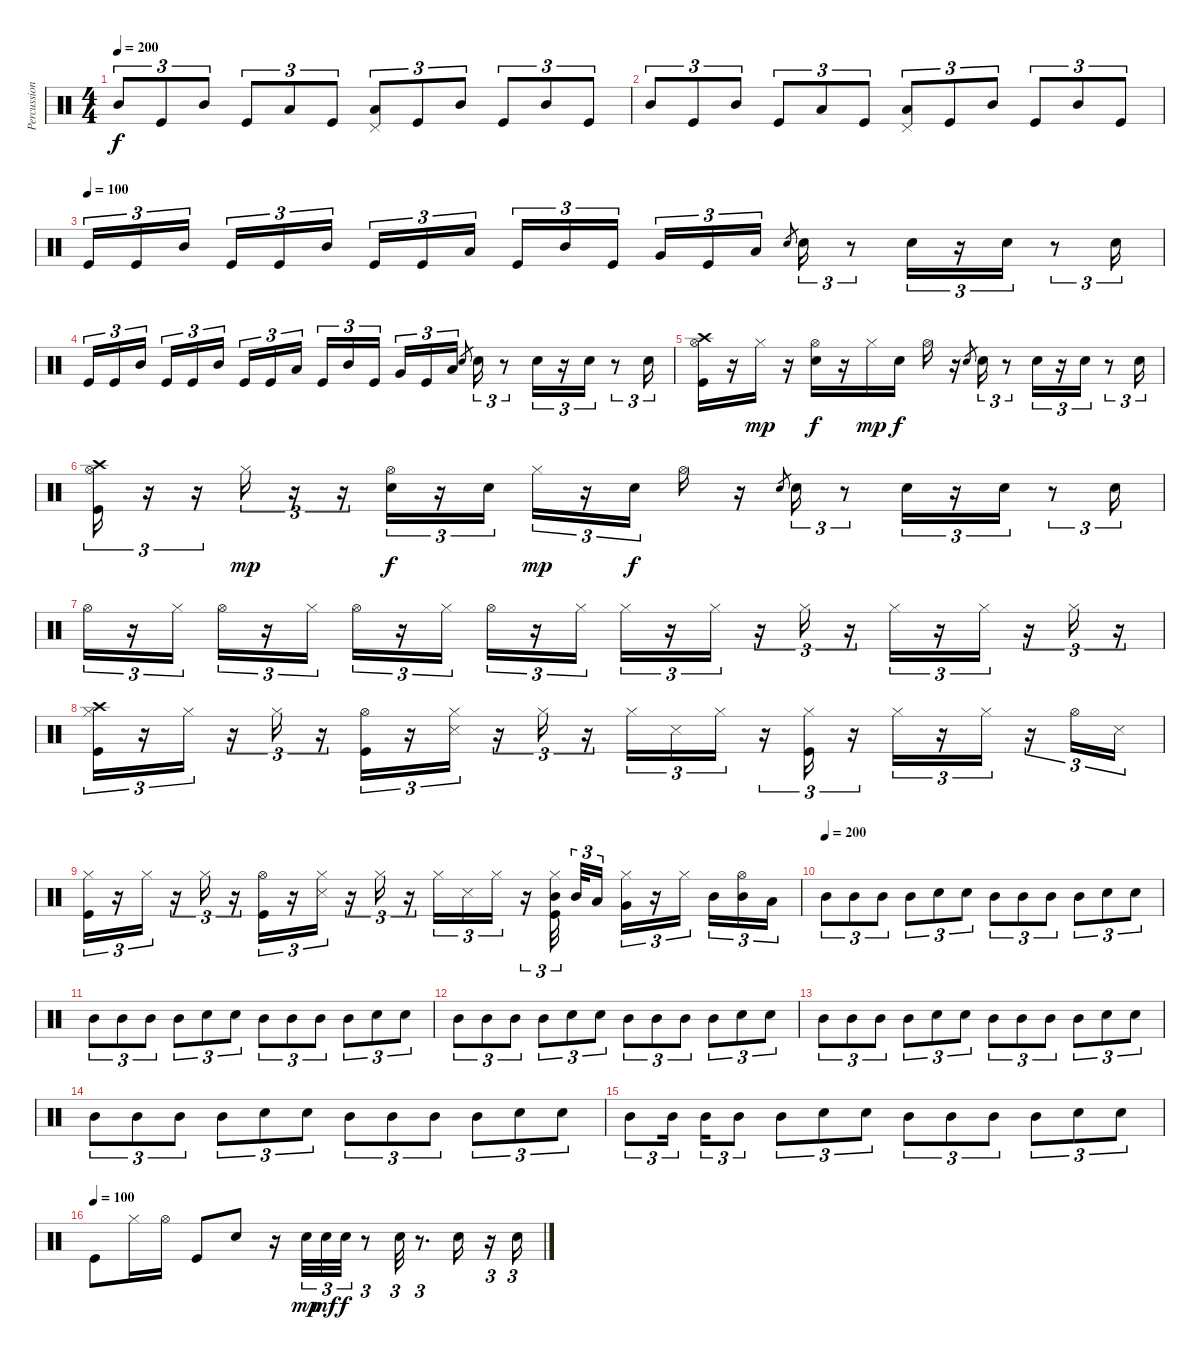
\track ("Percussions" "Percussion") {instrument percussion}
\staff {score}
\articulation defaults
\ts (4 4)
\tempo 200
\clef neutral
\ks c "Mid Tom (hit)".8{tu (3 2) dy f} "Kick (hit)".8{tu (3 2)} "Mid Tom (hit)".8{tu (3 2)} "Kick (hit)".8{tu (3 2)} "Low Tom (hit)".8{tu (3 2)} "Kick (hit)".8{tu (3 2)}
("Pedal Hi-Hat (hit)" "Low Tom (hit)").8{tu (3 2)} "Kick (hit)".8{tu (3 2)} "Mid Tom (hit)".8{tu (3 2)} "Kick (hit)".8{tu (3 2)} "Mid Tom (hit)".8{tu (3 2)} "Kick (hit)".8{tu (3 2)} |
"Mid Tom (hit)".8{tu (3 2)} "Kick (hit)".8{tu (3 2)} "Mid Tom (hit)".8{tu (3 2)} "Kick (hit)".8{tu (3 2)} "Low Tom (hit)".8{tu (3 2)} "Kick (hit)".8{tu (3 2)} ("Pedal Hi-Hat (hit)" "Low Tom (hit)").8{tu (3 2)} "Kick (hit)".8{tu (3 2)} "Mid Tom (hit)".8{tu (3 2)} "Kick (hit)".8{tu (3 2)} "Mid Tom (hit)".8{tu (3 2)} "Kick (hit)".8{tu (3 2)} |
\tempo (100)
"Kick (hit)".16{tu (3 2)} "Kick (hit)".16{tu (3 2)} "Mid Tom (hit)".16{tu (3 2)} "Kick (hit)".16{tu (3 2)} "Kick (hit)".16{tu (3 2)} "Mid Tom (hit)".16{tu (3 2)} "Kick (hit)".16{tu (3 2)} "Kick (hit)".16{tu (3 2)} "Low Tom (hit)".16{tu (3 2)} "Kick (hit)".16{tu (3 2)} "Mid Tom (hit)".16{tu (3 2)} "Kick (hit)".16{tu (3 2)} "Very Low Tom (hit)".16{tu (3 2)} "Kick (hit)".16{tu (3 2)} "Low Floor Tom (hit)".16{tu (3 2)} "Snare (hit) 2".8{gr} "Snare (hit) 2".16{tu (3 2)} r.8{tu (3 2)} "Snare (hit) 2".16{tu (3 2)} r.16{tu (3 2)} "Snare (hit) 2".16{tu (3 2)} r.8{tu (3 2)} "Snare (hit) 2".16{tu (3 2)} |
"Kick (hit)".16{tu (3 2)} "Kick (hit)".16{tu (3 2)} "Mid Tom (hit)".16{tu (3 2)} "Kick (hit)".16{tu (3 2)} "Kick (hit)".16{tu (3 2)} "Mid Tom (hit)".16{tu (3 2)} "Kick (hit)".16{tu (3 2)} "Kick (hit)".16{tu (3 2)} "Low Tom (hit)".16{tu (3 2)} "Kick (hit)".16{tu (3 2)} "Mid Tom (hit)".16{tu (3 2)} "Kick (hit)".16{tu (3 2)} "Very Low Tom (hit)".16{tu (3 2)} "Kick (hit)".16{tu (3 2)} "Low Floor Tom (hit)".16{tu (3 2)} "Snare (hit) 2".8{gr} "Snare (hit) 2".16{tu (3 2)} r.8{tu (3 2)} "Snare (hit) 2".16{tu (3 2)} r.16{tu (3 2)} "Snare (hit) 2".16{tu (3 2)} r.8{tu (3 2)} "Snare (hit) 2".16{tu (3 2)} |
("Hi-Hat (open)" "Crash high (hit)" "Kick (hit)").16 r.16 "Hi-Hat (closed)".16{dy mp} r.16 ("Hi-Hat (open)" "Snare (hit) 2").16{dy f} r.16 "Hi-Hat (closed)".16{dy mp} "Snare (hit) 2".16{dy f} "Hi-Hat (open)".16 r.16 "Snare (hit) 2".8{gr} "Snare (hit) 2".16{tu (3 2)} r.8{tu (3 2)} "Snare (hit) 2".16{tu (3 2)} r.16{tu (3 2)} "Snare (hit) 2".16{tu (3 2)} r.8{tu (3 2)} "Snare (hit) 2".16{tu (3 2)} |
("Hi-Hat (open)" "Crash high (hit)" "Kick (hit)").16{tu (3 2)} r.16{tu (3 2)} r.16{tu (3 2)} "Hi-Hat (closed)".16{tu (3 2) dy mp} r.16{tu (3 2)} r.16{tu (3 2)} ("Hi-Hat (open)" "Snare (hit) 2").16{tu (3 2) dy f} r.16{tu (3 2)} "Snare (hit) 2".16{tu (3 2)} "Hi-Hat (closed)".16{tu (3 2) dy mp} r.16{tu (3 2)} "Snare (hit) 2".16{tu (3 2) dy f} "Hi-Hat (open)".16 r.16 "Snare (hit) 2".8{gr} "Snare (hit) 2".16{tu (3 2)} r.8{tu (3 2)} "Snare (hit) 2".16{tu (3 2)} r.16{tu (3 2)} "Snare (hit) 2".16{tu (3 2)} r.8{tu (3 2)} "Snare (hit) 2".16{tu (3 2)} |
"Hi-Hat (open)".16{tu (3 2)} r.16{tu (3 2)} "Hi-Hat (closed)".16{tu (3 2)} "Hi-Hat (open)".16{tu (3 2)} r.16{tu (3 2)} "Hi-Hat (closed)".16{tu (3 2)} "Hi-Hat (open)".16{tu (3 2)} r.16{tu (3 2)} "Hi-Hat (closed)".16{tu (3 2)} "Hi-Hat (open)".16{tu (3 2)} r.16{tu (3 2)} "Hi-Hat (closed)".16{tu (3 2)} "Hi-Hat (closed)".16{tu (3 2)} r.16{tu (3 2)} "Hi-Hat (closed)".16{tu (3 2)} r.16{tu (3 2)} "Hi-Hat (closed)".16{tu (3 2)} r.16{tu (3 2)} "Hi-Hat (closed)".16{tu (3 2)} r.16{tu (3 2)} "Hi-Hat (closed)".16{tu (3 2)} r.16{tu (3 2)} "Hi-Hat (closed)".16{tu (3 2)} r.16{tu (3 2)} |
("Hi-Hat (closed)" "Crash high (hit)" "Kick (hit)").16{tu (3 2)} r.16{tu (3 2)} "Hi-Hat (closed)".16{tu (3 2)} r.16{tu (3 2)} "Hi-Hat (closed)".16{tu (3 2)} r.16{tu (3 2)} ("Hi-Hat (open)" "Kick (hit)").16{tu (3 2)} r.16{tu (3 2)} ("Hi-Hat (closed)" "Snare (side stick) 3").16{tu (3 2)} r.16{tu (3 2)} "Hi-Hat (closed)".16{tu (3 2)} r.16{tu (3 2)} "Hi-Hat (closed)".16{tu (3 2)} "Snare (side stick) 3".16{tu (3 2)} "Hi-Hat (closed)".16{tu (3 2)} r.16{tu (3 2)} ("Hi-Hat (closed)" "Kick (hit)").16{tu (3 2)} r.16{tu (3 2)} "Hi-Hat (closed)".16{tu (3 2)} r.16{tu (3 2)} "Hi-Hat (closed)".16{tu (3 2)} r.16{tu (3 2)} "Hi-Hat (open)".16{tu (3 2)} "Snare (side stick) 3".16{tu (3 2)} |
("Hi-Hat (closed)" "Kick (hit)").16{tu (3 2)} r.16{tu (3 2)} "Hi-Hat (closed)".16{tu (3 2)} r.16{tu (3 2)} "Hi-Hat (closed)".16{tu (3 2)} r.16{tu (3 2)} ("Hi-Hat (open)" "Kick (hit)").16{tu (3 2)} r.16{tu (3 2)} ("Hi-Hat (closed)" "Snare (side stick) 3").16{tu (3 2)} r.16{tu (3 2)} "Hi-Hat (closed)".16{tu (3 2)} r.16{tu (3 2)} "Hi-Hat (closed)".16{tu (3 2)} "Snare (side stick) 3".16{tu (3 2)} "Hi-Hat (closed)".16{tu (3 2)} r.16{tu (3 2)} ("Hi-Hat (closed)" "Mid Tom (hit)" "Kick (hit)").32{tu (3 2)} "Mid Tom (hit)".32{tu (3 2)} "Low Tom (hit)".16{tu (3 2)} ("Hi-Hat (closed)" "Very Low Tom (hit)").16{tu (3 2)} r.16{tu (3 2)} "Hi-Hat (closed)".16{tu (3 2)} "Mid Tom (hit)".16{tu (3 2)} ("Hi-Hat (open)" "Mid Tom (hit)").16{tu (3 2)} "Low Tom (hit)".16{tu (3 2)} |
\tempo (200)
"Mid Tom (hit)".8{tu (3 2)} "Mid Tom (hit)".8{tu (3 2)} "Mid Tom (hit)".8{tu (3 2)} "Mid Tom (hit)".8{tu (3 2)} "Snare (hit) 2".8{tu (3 2)} "Snare (hit) 2".8{tu (3 2)} "Mid Tom (hit)".8{tu (3 2)} "Mid Tom (hit)".8{tu (3 2)} "Mid Tom (hit)".8{tu (3 2)} "Mid Tom (hit)".8{tu (3 2)} "Snare (hit) 2".8{tu (3 2)} "Snare (hit) 2".8{tu (3 2)} |
"Mid Tom (hit)".8{tu (3 2)} "Mid Tom (hit)".8{tu (3 2)} "Mid Tom (hit)".8{tu (3 2)} "Mid Tom (hit)".8{tu (3 2)} "Snare (hit) 2".8{tu (3 2)} "Snare (hit) 2".8{tu (3 2)} "Mid Tom (hit)".8{tu (3 2)} "Mid Tom (hit)".8{tu (3 2)} "Mid Tom (hit)".8{tu (3 2)} "Mid Tom (hit)".8{tu (3 2)} "Snare (hit) 2".8{tu (3 2)} "Snare (hit) 2".8{tu (3 2)} |
"Mid Tom (hit)".8{tu (3 2)} "Mid Tom (hit)".8{tu (3 2)} "Mid Tom (hit)".8{tu (3 2)} "Mid Tom (hit)".8{tu (3 2)} "Snare (hit) 2".8{tu (3 2)} "Snare (hit) 2".8{tu (3 2)} "Mid Tom (hit)".8{tu (3 2)} "Mid Tom (hit)".8{tu (3 2)} "Mid Tom (hit)".8{tu (3 2)} "Mid Tom (hit)".8{tu (3 2)} "Snare (hit) 2".8{tu (3 2)} "Snare (hit) 2".8{tu (3 2)} |
"Mid Tom (hit)".8{tu (3 2)} "Mid Tom (hit)".8{tu (3 2)} "Mid Tom (hit)".8{tu (3 2)} "Mid Tom (hit)".8{tu (3 2)} "Snare (hit) 2".8{tu (3 2)} "Snare (hit) 2".8{tu (3 2)} "Mid Tom (hit)".8{tu (3 2)} "Mid Tom (hit)".8{tu (3 2)} "Mid Tom (hit)".8{tu (3 2)} "Mid Tom (hit)".8{tu (3 2)} "Snare (hit) 2".8{tu (3 2)} "Snare (hit) 2".8{tu (3 2)} |
"Mid Tom (hit)".8{tu (3 2)} "Mid Tom (hit)".8{tu (3 2)} "Mid Tom (hit)".8{tu (3 2)} "Mid Tom (hit)".8{tu (3 2)} "Snare (hit) 2".8{tu (3 2)} "Snare (hit) 2".8{tu (3 2)} "Mid Tom (hit)".8{tu (3 2)} "Mid Tom (hit)".8{tu (3 2)} "Mid Tom (hit)".8{tu (3 2)} "Mid Tom (hit)".8{tu (3 2)} "Snare (hit) 2".8{tu (3 2)} "Snare (hit) 2".8{tu (3 2)} |
"Mid Tom (hit)".8{tu (3 2)} "Mid Tom (hit)".16{tu (3 2)} "Mid Tom (hit)".16{tu (3 2)} "Mid Tom (hit)".8{tu (3 2)} "Mid Tom (hit)".8{tu (3 2)} "Snare (hit) 2".8{tu (3 2)} "Snare (hit) 2".8{tu (3 2)} "Mid Tom (hit)".8{tu (3 2)} "Mid Tom (hit)".8{tu (3 2)} "Mid Tom (hit)".8{tu (3 2)} "Mid Tom (hit)".8{tu (3 2)} "Snare (hit) 2".8{tu (3 2)} "Snare (hit) 2".8{tu (3 2)} |
\tempo (100)
"Kick (hit)".8 "Hi-Hat (closed)".16 "Hi-Hat (open)".16 "Kick (hit)".8 "Snare (hit) 2".8 r.16 "Snare (hit) 2".32{tu (3 2) dy mp} "Snare (hit) 2".32{tu (3 2) dy mf} "Snare (hit) 2".32{tu (3 2) dy f} r.8{tu (3 2)} "Snare (hit) 2".32{tu (3 2)} r.8{d tu (3 2)} "Snare (hit) 2".16 r.16{tu (3 2)} "Snare (hit) 2".16{tu (3 2)}
